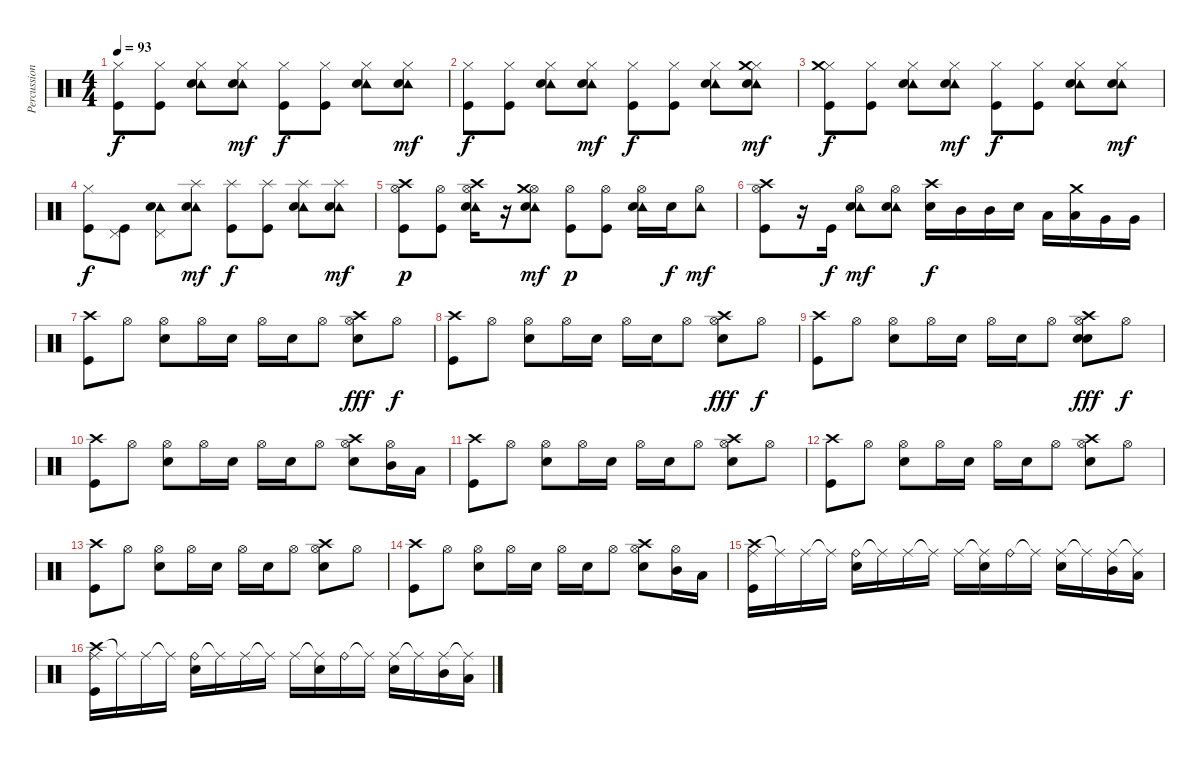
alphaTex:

\track ("Percussions" "Percussion") {instrument percussion}
\staff {score}
\articulation defaults
\ts (4 4)
\tempo 93
\clef neutral
\ks c
("Hi-Hat (closed)" "Kick (hit)").8{dy f} ("Hi-Hat (closed)" "Kick (hit)").8 ("Hi-Hat (closed)" "Tambourine (hit)" "Snare (hit) 2").8 ("Hi-Hat (closed)" "Tambourine (hit)" "Snare (hit) 2").8{dy mf} ("Hi-Hat (closed)" "Kick (hit)").8{dy f} ("Hi-Hat (closed)" "Kick (hit)").8 ("Hi-Hat (closed)" "Tambourine (hit)" "Snare (hit) 2").8 ("Hi-Hat (closed)" "Tambourine (hit)" "Snare (hit) 2").8{dy mf} |
("Hi-Hat (closed)" "Kick (hit)").8{dy f} ("Hi-Hat (closed)" "Kick (hit)").8 ("Hi-Hat (closed)" "Tambourine (hit)" "Snare (hit) 2").8 ("Hi-Hat (closed)" "Tambourine (hit)" "Snare (hit) 2").8{dy mf} ("Hi-Hat (closed)" "Kick (hit)").8{dy f} ("Hi-Hat (closed)" "Kick (hit)").8 ("Hi-Hat (closed)" "Tambourine (hit)" "Snare (hit) 2").8 ("Hi-Hat (closed)" "Crash medium (hit)" "Tambourine (hit)" "Snare (hit) 2").8{dy mf} |
("Hi-Hat (closed)" "Crash medium (hit)" "Kick (hit)").8{dy f} ("Hi-Hat (closed)" "Kick (hit)").8 ("Hi-Hat (closed)" "Tambourine (hit)" "Snare (hit) 2").8 ("Hi-Hat (closed)" "Tambourine (hit)" "Snare (hit) 2").8{dy mf} ("Hi-Hat (closed)" "Kick (hit)").8{dy f} ("Hi-Hat (closed)" "Kick (hit)").8 ("Hi-Hat (closed)" "Tambourine (hit)" "Snare (hit) 2").8 ("Hi-Hat (closed)" "Tambourine (hit)" "Snare (hit) 2").8{dy mf} |
("Hi-Hat (closed)" "Kick (hit)").8{dy f} ("Pedal Hi-Hat (hit)" "Kick (hit)").8 ("Pedal Hi-Hat (hit)" "Tambourine (hit)" "Snare (hit) 2").8 ("Splash (hit)" "Tambourine (hit)" "Snare (hit) 2").8{dy mf} ("Splash (hit)" "Kick (hit)").8{dy f} ("Splash (hit)" "Kick (hit)").8 ("Splash (hit)" "Tambourine (hit)" "Snare (hit) 2").8 ("Splash (hit)" "Tambourine (hit)" "Snare (hit) 2").8{dy mf} |
("Hi-Hat (open)" "Crash high (hit)" "Kick (hit)").8{dy p} ("Hi-Hat (open)" "Kick (hit)").8 ("Hi-Hat (open)" "Crash high (hit)" "Tambourine (hit)" "Snare (hit) 2").16 r.16 ("Hi-Hat (open)" "Crash medium (hit)" "Tambourine (hit)" "Snare (hit) 2").8{dy mf} ("Hi-Hat (open)" "Kick (hit)").8{dy p} ("Hi-Hat (open)" "Kick (hit)").8 ("Hi-Hat (open)" "Tambourine (hit)" "Snare (hit) 2").16 "Snare (hit) 2".16{dy f} ("Hi-Hat (open)" "Tambourine (hit)").8{dy mf} |
("Hi-Hat (open)" "Crash high (hit)" "Kick (hit)").8 r.16 "Kick (hit)".16{dy f} ("Hi-Hat (open)" "Tambourine (hit)" "Snare (hit) 2").8{dy mf} ("Hi-Hat (open)" "Tambourine (hit)" "Snare (hit) 2").8 ("Crash high (hit)" "Snare (hit) 2").16{dy f} "Mid Tom (hit)".16 "Mid Tom (hit)".16 "Snare (hit) 2".16 "Low Tom (hit)".16 ("Crash medium (hit)" "Low Tom (hit)").16 "Very Low Tom (hit)".16 "Very Low Tom (hit)".16 |
\section ("" "")
("Crash high (hit)" "Kick (hit)").8 "Hi-Hat (open)".8 ("Hi-Hat (open)" "Snare (hit) 2").8 "Hi-Hat (open)".16 "Snare (hit) 2".16 "Hi-Hat (open)".16 "Snare (hit) 2".16 "Hi-Hat (open)".8 ("Hi-Hat (open)" "Crash high (hit)" "Snare (hit) 2").8{dy fff} "Hi-Hat (open)".8{dy f} |
("Crash high (hit)" "Kick (hit)").8 "Hi-Hat (open)".8 ("Hi-Hat (open)" "Snare (hit) 2").8 "Hi-Hat (open)".16 "Snare (hit) 2".16 "Hi-Hat (open)".16 "Snare (hit) 2".16 "Hi-Hat (open)".8 ("Hi-Hat (open)" "Crash high (hit)" "Snare (hit) 2").8{dy fff} "Hi-Hat (open)".8{dy f} |
("Crash high (hit)" "Kick (hit)").8 "Hi-Hat (open)".8 ("Hi-Hat (open)" "Snare (hit) 2").8 "Hi-Hat (open)".16 "Snare (hit) 2".16 "Hi-Hat (open)".16 "Snare (hit) 2".16 "Hi-Hat (open)".8 ("Hi-Hat (open)" "Crash high (hit)" "Snare (hit) 2" "Snare (hit) 2").8{dy fff} "Hi-Hat (open)".8{dy f} |
("Crash high (hit)" "Kick (hit)").8 "Hi-Hat (open)".8 ("Hi-Hat (open)" "Snare (hit) 2").8 "Hi-Hat (open)".16 "Snare (hit) 2".16 "Hi-Hat (open)".16 "Snare (hit) 2".16 "Hi-Hat (open)".8 ("Hi-Hat (open)" "Crash high (hit)" "Snare (hit) 2").8 ("Hi-Hat (open)" "Mid Tom (hit)").16 "Low Tom (hit)".16 |
("Crash high (hit)" "Kick (hit)").8 "Hi-Hat (open)".8 ("Hi-Hat (open)" "Snare (hit) 2").8 "Hi-Hat (open)".16 "Snare (hit) 2".16 "Hi-Hat (open)".16 "Snare (hit) 2".16 "Hi-Hat (open)".8 ("Hi-Hat (open)" "Crash high (hit)" "Snare (hit) 2").8 "Hi-Hat (open)".8 |
("Crash high (hit)" "Kick (hit)").8 "Hi-Hat (open)".8 ("Hi-Hat (open)" "Snare (hit) 2").8 "Hi-Hat (open)".16 "Snare (hit) 2".16 "Hi-Hat (open)".16 "Snare (hit) 2".16 "Hi-Hat (open)".8 ("Hi-Hat (open)" "Crash high (hit)" "Snare (hit) 2").8 "Hi-Hat (open)".8 |
("Crash high (hit)" "Kick (hit)").8 "Hi-Hat (open)".8 ("Hi-Hat (open)" "Snare (hit) 2").8 "Hi-Hat (open)".16 "Snare (hit) 2".16 "Hi-Hat (open)".16 "Snare (hit) 2".16 "Hi-Hat (open)".8 ("Hi-Hat (open)" "Crash high (hit)" "Snare (hit) 2").8 "Hi-Hat (open)".8 |
("Crash high (hit)" "Kick (hit)").8 "Hi-Hat (open)".8 ("Hi-Hat (open)" "Snare (hit) 2").8 "Hi-Hat (open)".16 "Snare (hit) 2".16 "Hi-Hat (open)".16 "Snare (hit) 2".16 "Hi-Hat (open)".8 ("Hi-Hat (open)" "Crash high (hit)" "Snare (hit) 2").8 ("Hi-Hat (open)" "Mid Tom (hit)").16 "Low Tom (hit)".16 |
\section ("" "")
("Crash high (hit)" "Ride (middle)" "Kick (hit)").16 "Ride (middle)"{t}.16 "Ride (middle)".16 "Ride (middle)"{t}.16 ("Ride (bell)" "Snare (hit) 2").16 "Ride (middle)"{t}.16 "Ride (middle)".16 "Ride (middle)"{t}.16 "Ride (middle)".16 ("Ride (middle)"{t} "Snare (hit) 2").16 "Ride (bell)".16 "Ride (middle)"{t}.16 ("Ride (middle)" "Snare (hit) 2").16 "Ride (middle)"{t}.16 ("Ride (middle)" "Mid Tom (hit)").16 ("Ride (middle)"{t} "Low Tom (hit)").16 |
("Crash high (hit)" "Ride (middle)" "Kick (hit)").16 "Ride (middle)"{t}.16 "Ride (middle)".16 "Ride (middle)"{t}.16 ("Ride (bell)" "Snare (hit) 2").16 "Ride (middle)"{t}.16 "Ride (middle)".16 "Ride (middle)"{t}.16 "Ride (middle)".16 ("Ride (middle)"{t} "Snare (hit) 2").16 "Ride (bell)".16 "Ride (middle)"{t}.16 ("Ride (middle)" "Snare (hit) 2").16 "Ride (middle)"{t}.16 ("Ride (middle)" "Mid Tom (hit)").16 ("Ride (middle)"{t} "Low Tom (hit)").16
